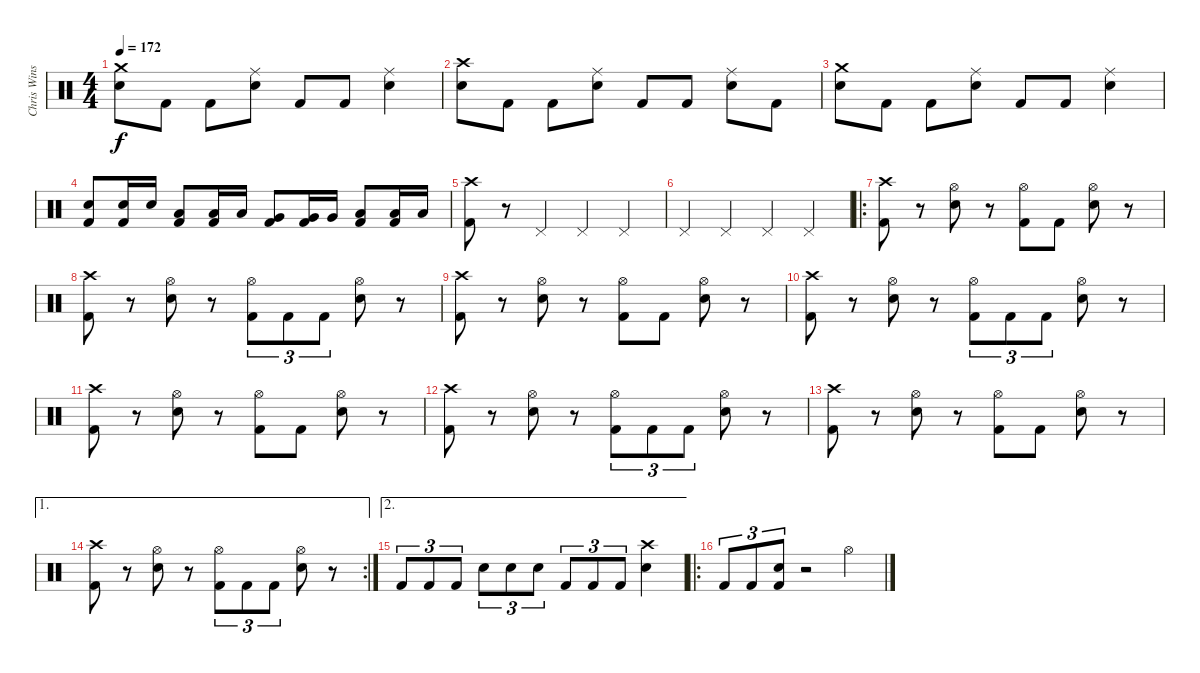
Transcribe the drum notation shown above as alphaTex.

\track ("Chris Winship (Drums)" "Chris Wins") {instrument percussion}
\staff {score}
\articulation defaults
\ts (4 4)
\tempo 172
\clef neutral
\ks c
("Electric Snare (hit)" "Crash medium (hit)").8{dy f} "Kick (hit) 2".8 "Kick (hit) 2".8 ("Electric Snare (hit)" "Ride (middle)").8 "Kick (hit) 2".8 "Kick (hit) 2".8 ("Electric Snare (hit)" "Ride (middle)").4 |
("Electric Snare (hit)" "Crash high (hit)").8 "Kick (hit) 2".8 "Kick (hit) 2".8 ("Electric Snare (hit)" "Ride (middle)").8 "Kick (hit) 2".8 "Kick (hit) 2".8 ("Electric Snare (hit)" "Ride (middle)").8 "Kick (hit) 2".8 |
("Electric Snare (hit)" "Crash medium (hit)").8 "Kick (hit) 2".8 "Kick (hit) 2".8 ("Electric Snare (hit)" "Ride (middle)").8 "Kick (hit) 2".8 "Kick (hit) 2".8 ("Electric Snare (hit)" "Ride (middle)").4 |
("Electric Snare (hit)" "Kick (hit) 2").8 ("Electric Snare (hit)" "Kick (hit) 2").16 "Electric Snare (hit)".16 ("Low Tom (hit)" "Kick (hit) 2").8 ("Low Tom (hit)" "Kick (hit) 2").16 "Low Tom (hit)".16 ("Very Low Tom (hit)" "Kick (hit) 2").8 ("Very Low Tom (hit)" "Kick (hit) 2").16 "Very Low Tom (hit)".16 ("Low Floor Tom (hit)" "Kick (hit) 2").8 ("Low Floor Tom (hit)" "Kick (hit) 2").16 "Low Floor Tom (hit)".16 |
("Crash high (hit)" "Kick (hit) 2").8 r.8 "Pedal Hi-Hat (hit)".4 "Pedal Hi-Hat (hit)".4 "Pedal Hi-Hat (hit)".4 |
"Pedal Hi-Hat (hit)".4 "Pedal Hi-Hat (hit)".4 "Pedal Hi-Hat (hit)".4 "Pedal Hi-Hat (hit)".4 |
\ro
("Crash high (hit)" "Kick (hit) 2").8 r.8 ("Hi-Hat (open)" "Electric Snare (hit)").8 r.8 ("Hi-Hat (open)" "Kick (hit) 2").8 "Kick (hit) 2".8 ("Hi-Hat (open)" "Electric Snare (hit)").8 r.8 |
("Crash high (hit)" "Kick (hit) 2").8 r.8 ("Hi-Hat (open)" "Electric Snare (hit)").8 r.8 ("Hi-Hat (open)" "Kick (hit) 2").8{tu (3 2)} "Kick (hit) 2".8{tu (3 2)} "Kick (hit) 2".8{tu (3 2)} ("Hi-Hat (open)" "Electric Snare (hit)").8 r.8 |
("Crash high (hit)" "Kick (hit) 2").8 r.8 ("Hi-Hat (open)" "Electric Snare (hit)").8 r.8 ("Hi-Hat (open)" "Kick (hit) 2").8 "Kick (hit) 2".8 ("Hi-Hat (open)" "Electric Snare (hit)").8 r.8 |
("Crash high (hit)" "Kick (hit) 2").8 r.8 ("Hi-Hat (open)" "Electric Snare (hit)").8 r.8 ("Hi-Hat (open)" "Kick (hit) 2").8{tu (3 2)} "Kick (hit) 2".8{tu (3 2)} "Kick (hit) 2".8{tu (3 2)} ("Hi-Hat (open)" "Electric Snare (hit)").8 r.8 |
("Crash high (hit)" "Kick (hit) 2").8 r.8 ("Hi-Hat (open)" "Electric Snare (hit)").8 r.8 ("Hi-Hat (open)" "Kick (hit) 2").8 "Kick (hit) 2".8 ("Hi-Hat (open)" "Electric Snare (hit)").8 r.8 |
("Crash high (hit)" "Kick (hit) 2").8 r.8 ("Hi-Hat (open)" "Electric Snare (hit)").8 r.8 ("Hi-Hat (open)" "Kick (hit) 2").8{tu (3 2)} "Kick (hit) 2".8{tu (3 2)} "Kick (hit) 2".8{tu (3 2)} ("Hi-Hat (open)" "Electric Snare (hit)").8 r.8 |
("Crash high (hit)" "Kick (hit) 2").8 r.8 ("Hi-Hat (open)" "Electric Snare (hit)").8 r.8 ("Hi-Hat (open)" "Kick (hit) 2").8 "Kick (hit) 2".8 ("Hi-Hat (open)" "Electric Snare (hit)").8 r.8 |
\ae 1
\rc 2
("Crash high (hit)" "Kick (hit) 2").8 r.8 ("Hi-Hat (open)" "Electric Snare (hit)").8 r.8 ("Hi-Hat (open)" "Kick (hit) 2").8{tu (3 2)} "Kick (hit) 2".8{tu (3 2)} "Kick (hit) 2".8{tu (3 2)} ("Hi-Hat (open)" "Electric Snare (hit)").8 r.8 |
\ae 2 "Kick (hit) 2".8{tu (3 2)} "Kick (hit) 2".8{tu (3 2)} "Kick (hit) 2".8{tu (3 2)} "Electric Snare (hit)".8{tu (3 2)} "Electric Snare (hit)".8{tu (3 2)} "Electric Snare (hit)".8{tu (3 2)} "Kick (hit) 2".8{tu (3 2)} "Kick (hit) 2".8{tu (3 2)} "Kick (hit) 2".8{tu (3 2)}
("Crash high (hit)" "Electric Snare (hit)").4 |
\ro "Kick (hit) 2".8{tu (3 2)} "Kick (hit) 2".8{tu (3 2)}
("Electric Snare (hit)" "Kick (hit) 2").8{tu (3 2)} r.2 "Hi-Hat (open)".4
